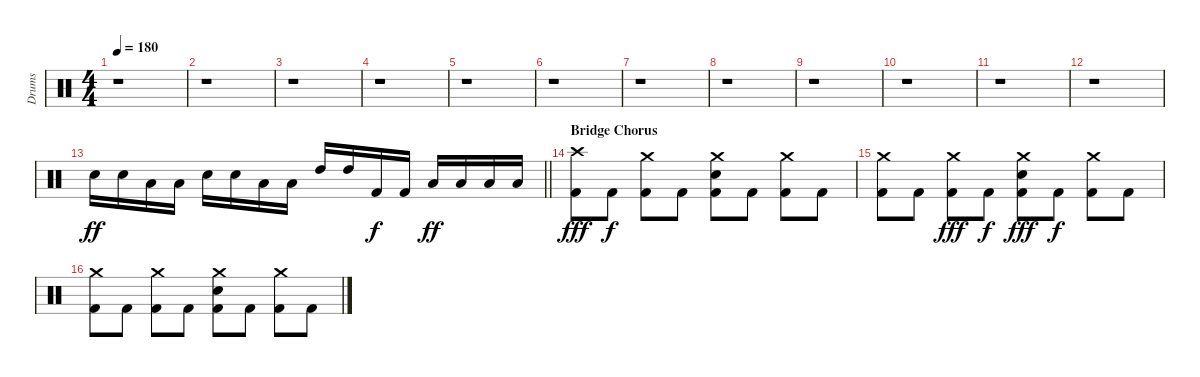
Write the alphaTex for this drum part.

\track ("Drums" "Drums") {instrument percussion}
\staff {score}
\articulation defaults
\ts (4 4)
\tempo 180
\clef neutral
\ks c
r.1{dy fff} |
r.1 |
r.1 |
r.1 |
r.1 |
r.1 |
r.1 |
r.1 |
r.1 |
r.1 |
r.1 |
r.1 |
\barLineRight lightlight "Snare (hit) 2".16{dy ff} "Snare (hit) 2".16 "Low Tom (hit)".16 "Low Tom (hit)".16 "Snare (hit) 2".16 "Snare (hit) 2".16 "Low Tom (hit)".16 "Low Tom (hit)".16 "High Tom (hit)".16 "High Tom (hit)".16 "Kick (hit) 2".16{dy f} "Kick (hit) 2".16 "Low Tom (hit)".16{dy ff} "Low Tom (hit)".16 "Low Tom (hit)".16 "Low Tom (hit)".16
|
\section ("" "Bridge Chorus")
("Kick (hit) 2" "Crash high (hit)").8{dy fff} "Kick (hit) 2".8{dy f} ("Crash medium (hit)" "Kick (hit) 2").8 "Kick (hit) 2".8 ("Crash medium (hit)" "Snare (hit) 2" "Kick (hit) 2").8 "Kick (hit) 2".8 ("Crash medium (hit)" "Kick (hit) 2").8 "Kick (hit) 2".8 |
("Crash medium (hit)" "Kick (hit) 2").8 "Kick (hit) 2".8 ("Crash medium (hit)" "Kick (hit) 2").8{dy fff} "Kick (hit) 2".8{dy f} ("Snare (hit) 2" "Crash medium (hit)" "Kick (hit) 2").8{dy fff} "Kick (hit) 2".8{dy f} ("Crash medium (hit)" "Kick (hit) 2").8 "Kick (hit) 2".8 |
("Crash medium (hit)" "Kick (hit) 2").8 "Kick (hit) 2".8 ("Crash medium (hit)" "Kick (hit) 2").8 "Kick (hit) 2".8 ("Crash medium (hit)" "Snare (hit) 2" "Kick (hit) 2").8 "Kick (hit) 2".8 ("Crash medium (hit)" "Kick (hit) 2").8 "Kick (hit) 2".8
